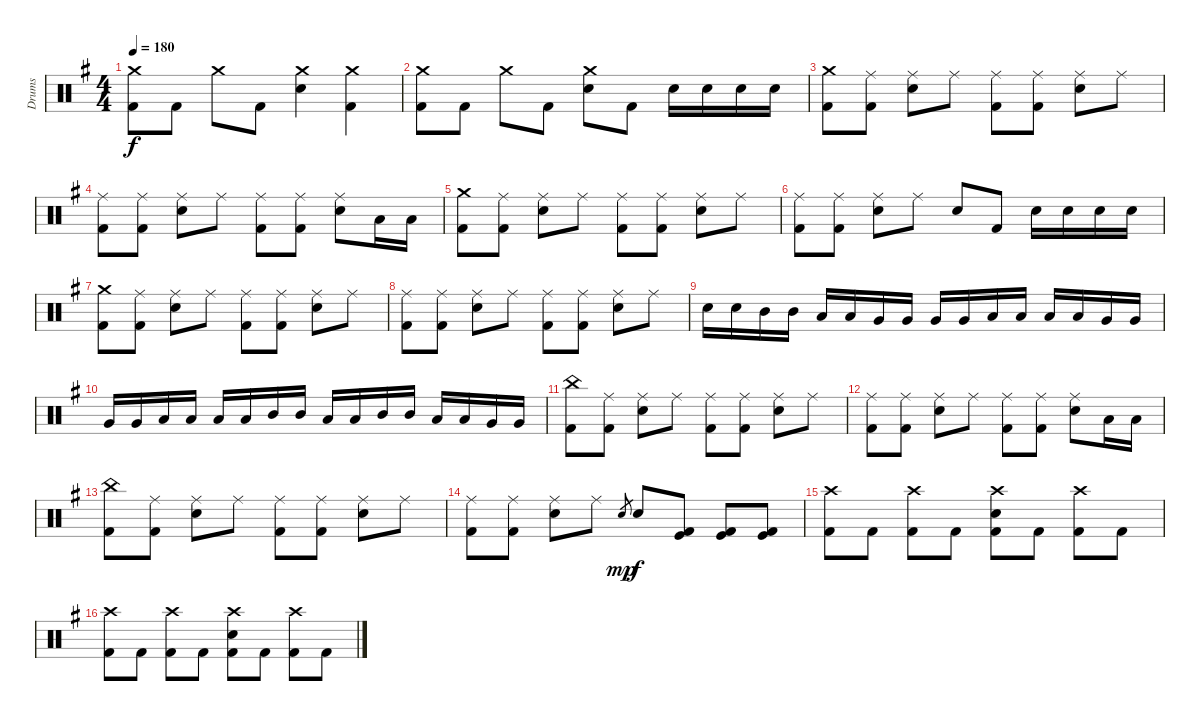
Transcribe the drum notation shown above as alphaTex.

\track ("Drums" "Drums") {instrument percussion}
\staff {score}
\articulation defaults
\ts (4 4)
\tempo 180
\clef neutral
\ks g
("Crash medium (hit)" "Kick (hit) 2").8{dy f} "Kick (hit) 2".8 "Crash medium (hit)".8 "Kick (hit) 2".8 ("Crash medium (hit)" "Electric Snare (hit)").4 ("Crash medium (hit)" "Kick (hit) 2").4 |
("Crash medium (hit)" "Kick (hit) 2").8 "Kick (hit) 2".8 "Crash medium (hit)".8 "Kick (hit) 2".8 ("Crash medium (hit)" "Electric Snare (hit)").8 "Kick (hit) 2".8 "Electric Snare (hit)".16 "Electric Snare (hit)".16 "Electric Snare (hit)".16 "Electric Snare (hit)".16 |
("Crash medium (hit)" "Kick (hit) 2").8 ("Ride (middle)" "Kick (hit) 2").8 ("Ride (middle)" "Electric Snare (hit)").8 "Ride (middle)".8 ("Ride (middle)" "Kick (hit) 2").8 ("Ride (middle)" "Kick (hit) 2").8 ("Ride (middle)" "Electric Snare (hit)").8 "Ride (middle)".8 |
("Ride (middle)" "Kick (hit) 2").8 ("Ride (middle)" "Kick (hit) 2").8 ("Ride (middle)" "Electric Snare (hit)").8 "Ride (middle)".8 ("Ride (middle)" "Kick (hit) 2").8 ("Ride (middle)" "Kick (hit) 2").8 ("Ride (middle)" "Electric Snare (hit)").8 "Low Tom (hit)".16 "Low Tom (hit)".16 |
("Crash medium (hit)" "Kick (hit) 2").8 ("Ride (middle)" "Kick (hit) 2").8 ("Ride (middle)" "Electric Snare (hit)").8 "Ride (middle)".8 ("Ride (middle)" "Kick (hit) 2").8 ("Ride (middle)" "Kick (hit) 2").8 ("Ride (middle)" "Electric Snare (hit)").8 "Ride (middle)".8 |
("Ride (middle)" "Kick (hit) 2").8 ("Ride (middle)" "Kick (hit) 2").8 ("Ride (middle)" "Electric Snare (hit)").8 "Ride (middle)".8 "Electric Snare (hit)".8 "Kick (hit) 2".8 "Electric Snare (hit)".16 "Electric Snare (hit)".16 "Electric Snare (hit)".16 "Electric Snare (hit)".16 |
("Crash medium (hit)" "Kick (hit) 2").8 ("Ride (middle)" "Kick (hit) 2").8 ("Ride (middle)" "Electric Snare (hit)").8 "Ride (middle)".8 ("Ride (middle)" "Kick (hit) 2").8 ("Ride (middle)" "Kick (hit) 2").8 ("Ride (middle)" "Electric Snare (hit)").8 "Ride (middle)".8 |
("Ride (middle)" "Kick (hit) 2").8 ("Ride (middle)" "Kick (hit) 2").8 ("Ride (middle)" "Electric Snare (hit)").8 "Ride (middle)".8 ("Ride (middle)" "Kick (hit) 2").8 ("Ride (middle)" "Kick (hit) 2").8 ("Ride (middle)" "Electric Snare (hit)").8 "Ride (middle)".8 |
"Electric Snare (hit)".16 "Electric Snare (hit)".16 "Mid Tom (hit)".16 "Mid Tom (hit)".16 "Low Tom (hit)".16 "Low Tom (hit)".16 "Very Low Tom (hit)".16 "Very Low Tom (hit)".16 "Very Low Tom (hit)".16 "Very Low Tom (hit)".16 "Low Tom (hit)".16 "Low Tom (hit)".16 "Low Tom (hit)".16 "Low Tom (hit)".16 "Very Low Tom (hit)".16 "Very Low Tom (hit)".16 |
"Very Low Tom (hit)".16 "Very Low Tom (hit)".16 "Low Tom (hit)".16 "Low Tom (hit)".16 "Low Tom (hit)".16 "Low Tom (hit)".16 "Mid Tom (hit)".16 "Mid Tom (hit)".16 "Low Tom (hit)".16 "Low Tom (hit)".16 "Mid Tom (hit)".16 "Mid Tom (hit)".16 "Low Tom (hit)".16 "Low Tom (hit)".16 "Very Low Tom (hit)".16 "Very Low Tom (hit)".16 |
("China (hit)" "Kick (hit) 2").8 ("Ride (middle)" "Kick (hit) 2").8 ("Ride (middle)" "Electric Snare (hit)").8 "Ride (middle)".8 ("Ride (middle)" "Kick (hit) 2").8 ("Ride (middle)" "Kick (hit) 2").8 ("Ride (middle)" "Electric Snare (hit)").8 "Ride (middle)".8 |
("Ride (middle)" "Kick (hit) 2").8 ("Ride (middle)" "Kick (hit) 2").8 ("Ride (middle)" "Electric Snare (hit)").8 "Ride (middle)".8 ("Ride (middle)" "Kick (hit) 2").8 ("Ride (middle)" "Kick (hit) 2").8 ("Ride (middle)" "Electric Snare (hit)").8 "Low Tom (hit)".16 "Low Tom (hit)".16 |
("China (hit)" "Kick (hit) 2").8 ("Ride (middle)" "Kick (hit) 2").8 ("Ride (middle)" "Electric Snare (hit)").8 "Ride (middle)".8 ("Ride (middle)" "Kick (hit) 2").8 ("Ride (middle)" "Kick (hit) 2").8 ("Ride (middle)" "Electric Snare (hit)").8 "Ride (middle)".8 |
("Ride (middle)" "Kick (hit) 2").8 ("Ride (middle)" "Kick (hit) 2").8 ("Ride (middle)" "Electric Snare (hit)").8 "Ride (middle)".8 "Electric Snare (hit)".8{gr dy mp} "Electric Snare (hit)".8{dy f} ("Kick (hit)" "Kick (hit) 2").8 ("Kick (hit)" "Kick (hit) 2").8 ("Kick (hit)" "Kick (hit) 2").8 |
("Crash high (hit)" "Kick (hit) 2").8 "Kick (hit) 2".8 ("Crash high (hit)" "Kick (hit) 2").8 "Kick (hit) 2".8 ("Crash high (hit)" "Electric Snare (hit)" "Kick (hit) 2").8 "Kick (hit) 2".8 ("Crash high (hit)" "Kick (hit) 2").8 "Kick (hit) 2".8 |
("Crash high (hit)" "Kick (hit) 2").8 "Kick (hit) 2".8 ("Crash high (hit)" "Kick (hit) 2").8 "Kick (hit) 2".8 ("Crash high (hit)" "Electric Snare (hit)" "Kick (hit) 2").8 "Kick (hit) 2".8 ("Crash high (hit)" "Kick (hit) 2").8 "Kick (hit) 2".8
